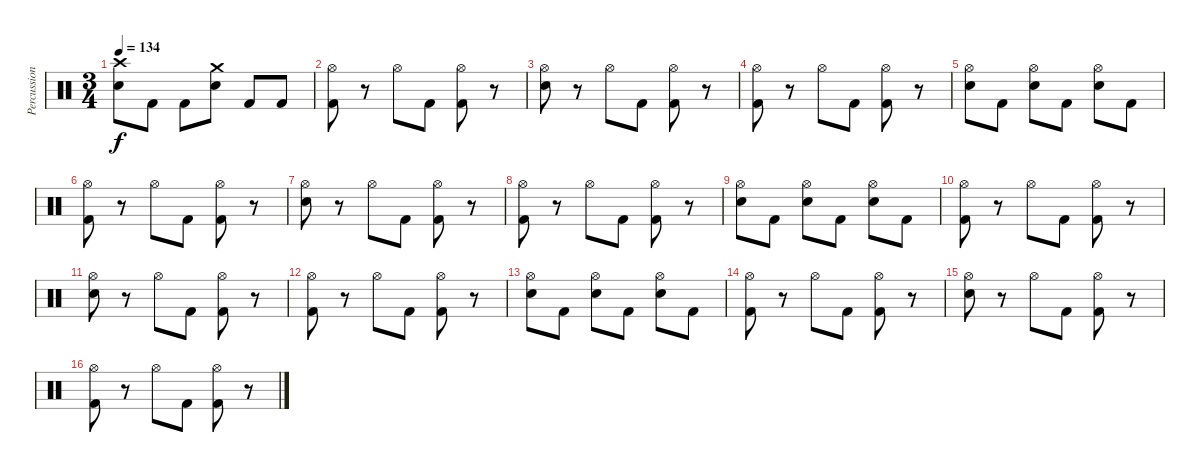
\track ("Percussion" "Percussion") {instrument percussion}
\staff {score}
\articulation defaults
\ts (3 4)
\tempo 134
\clef neutral
\ks c
("Crash high (hit)" "Snare (hit) 2").8{dy f} "Kick (hit) 2".8 "Kick (hit) 2".8 ("Crash medium (hit)" "Snare (hit) 2").8 "Kick (hit) 2".8 "Kick (hit) 2".8 |
("Hi-Hat (open)" "Kick (hit) 2").8 r.8 "Hi-Hat (open)".8 "Kick (hit) 2".8 ("Hi-Hat (open)" "Kick (hit) 2").8 r.8 |
("Hi-Hat (open)" "Snare (hit) 2").8 r.8 "Hi-Hat (open)".8 "Kick (hit) 2".8 ("Hi-Hat (open)" "Kick (hit) 2").8 r.8 |
("Hi-Hat (open)" "Kick (hit) 2").8 r.8 "Hi-Hat (open)".8 "Kick (hit) 2".8 ("Hi-Hat (open)" "Kick (hit) 2").8 r.8 |
("Hi-Hat (open)" "Snare (hit) 2").8 "Kick (hit) 2".8 ("Hi-Hat (open)" "Snare (hit) 2").8 "Kick (hit) 2".8 ("Hi-Hat (open)" "Snare (hit) 2").8 "Kick (hit) 2".8 |
("Hi-Hat (open)" "Kick (hit) 2").8 r.8 "Hi-Hat (open)".8 "Kick (hit) 2".8 ("Hi-Hat (open)" "Kick (hit) 2").8 r.8 |
("Hi-Hat (open)" "Snare (hit) 2").8 r.8 "Hi-Hat (open)".8 "Kick (hit) 2".8 ("Hi-Hat (open)" "Kick (hit) 2").8 r.8 |
("Hi-Hat (open)" "Kick (hit) 2").8 r.8 "Hi-Hat (open)".8 "Kick (hit) 2".8 ("Hi-Hat (open)" "Kick (hit) 2").8 r.8 |
("Hi-Hat (open)" "Snare (hit) 2").8 "Kick (hit) 2".8 ("Hi-Hat (open)" "Snare (hit) 2").8 "Kick (hit) 2".8 ("Hi-Hat (open)" "Snare (hit) 2").8 "Kick (hit) 2".8 |
("Hi-Hat (open)" "Kick (hit) 2").8 r.8 "Hi-Hat (open)".8 "Kick (hit) 2".8 ("Hi-Hat (open)" "Kick (hit) 2").8 r.8 |
("Hi-Hat (open)" "Snare (hit) 2").8 r.8 "Hi-Hat (open)".8 "Kick (hit) 2".8 ("Hi-Hat (open)" "Kick (hit) 2").8 r.8 |
("Hi-Hat (open)" "Kick (hit) 2").8 r.8 "Hi-Hat (open)".8 "Kick (hit) 2".8 ("Hi-Hat (open)" "Kick (hit) 2").8 r.8 |
("Hi-Hat (open)" "Snare (hit) 2").8 "Kick (hit) 2".8 ("Hi-Hat (open)" "Snare (hit) 2").8 "Kick (hit) 2".8 ("Hi-Hat (open)" "Snare (hit) 2").8 "Kick (hit) 2".8 |
("Hi-Hat (open)" "Kick (hit) 2").8 r.8 "Hi-Hat (open)".8 "Kick (hit) 2".8 ("Hi-Hat (open)" "Kick (hit) 2").8 r.8 |
("Hi-Hat (open)" "Snare (hit) 2").8 r.8 "Hi-Hat (open)".8 "Kick (hit) 2".8 ("Hi-Hat (open)" "Kick (hit) 2").8 r.8 |
("Hi-Hat (open)" "Kick (hit) 2").8 r.8 "Hi-Hat (open)".8 "Kick (hit) 2".8 ("Hi-Hat (open)" "Kick (hit) 2").8 r.8
